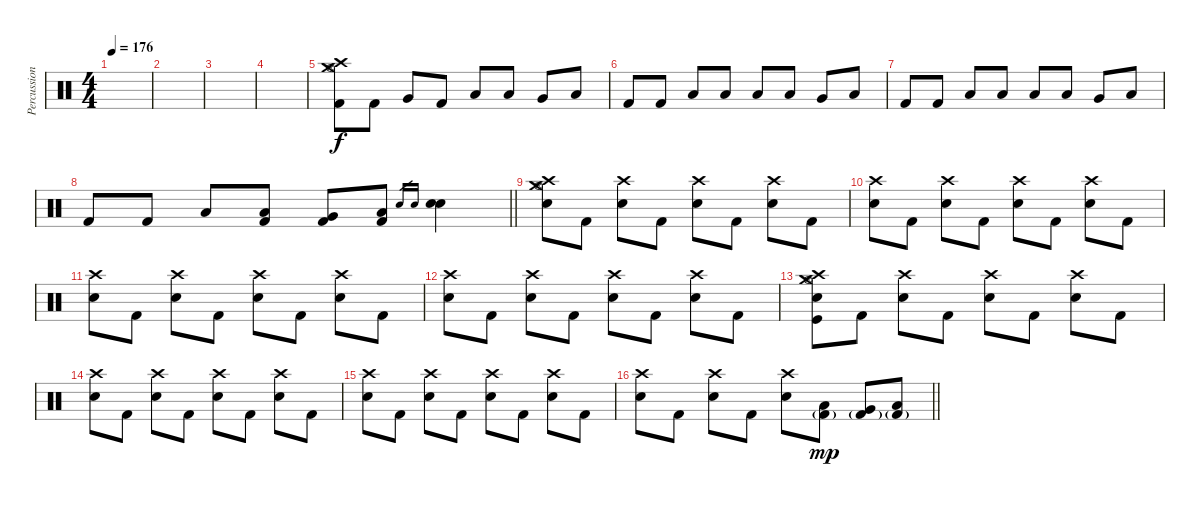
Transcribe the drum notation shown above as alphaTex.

\track ("Percussion" "Percussion") {instrument percussion}
\staff {score}
\articulation defaults
\ts (4 4)
\tempo 176
\clef neutral
\ks c
|
|
|
|
("Hi-Hat (open)" "Crash medium (hit)" "Crash high (hit)" "Kick (hit) 2").8 "Kick (hit) 2".8 "Very Low Tom (hit)".8 "Kick (hit) 2".8 "Low Floor Tom (hit)".8 "Low Tom (hit)".8 "Very Low Tom (hit)".8 "Low Tom (hit)".8 |
"Kick (hit) 2".8 "Kick (hit) 2".8 "Low Tom (hit)".8 "Low Floor Tom (hit)".8 "Low Floor Tom (hit)".8 "Low Tom (hit)".8 "Very Low Tom (hit)".8 "Low Tom (hit)".8 |
"Kick (hit) 2".8 "Kick (hit) 2".8 "Low Tom (hit)".8 "Low Floor Tom (hit)".8 "Low Floor Tom (hit)".8 "Low Tom (hit)".8 "Very Low Tom (hit)".8 "Low Tom (hit)".8 |
\barLineRight lightlight "Kick (hit) 2".8 "Kick (hit) 2".8 "Low Tom (hit)".8
("Low Tom (hit)" "Kick (hit) 2").8 ("Very Low Tom (hit)" "Kick (hit) 2").8 ("Low Floor Tom (hit)" "Kick (hit) 2").8 "Electric Snare (hit)".16{gr} "Electric Snare (hit)".16{gr} ("Electric Snare (hit)" "Electric Snare (hit)").4 |
("Crash medium (hit)" "Crash high (hit)" "Hi-Hat (open)" "Electric Snare (hit)").8 "Kick (hit) 2".8 ("Crash high (hit)" "Electric Snare (hit)").8 "Kick (hit) 2".8 ("Crash high (hit)" "Electric Snare (hit)").8 "Kick (hit) 2".8 ("Crash high (hit)" "Electric Snare (hit)").8 "Kick (hit) 2".8 |
("Crash high (hit)" "Electric Snare (hit)").8 "Kick (hit) 2".8 ("Crash high (hit)" "Electric Snare (hit)").8 "Kick (hit) 2".8 ("Crash high (hit)" "Electric Snare (hit)").8 "Kick (hit) 2".8 ("Crash high (hit)" "Electric Snare (hit)").8 "Kick (hit) 2".8 |
("Crash high (hit)" "Electric Snare (hit)").8 "Kick (hit) 2".8 ("Crash high (hit)" "Electric Snare (hit)").8 "Kick (hit) 2".8 ("Crash high (hit)" "Electric Snare (hit)").8 "Kick (hit) 2".8 ("Crash high (hit)" "Electric Snare (hit)").8 "Kick (hit) 2".8 |
("Crash high (hit)" "Electric Snare (hit)").8 "Kick (hit) 2".8 ("Crash high (hit)" "Electric Snare (hit)").8 "Kick (hit) 2".8 ("Crash high (hit)" "Electric Snare (hit)").8 "Kick (hit) 2".8 ("Crash high (hit)" "Electric Snare (hit)").8 "Kick (hit) 2".8 |
("Crash medium (hit)" "Crash high (hit)" "Hi-Hat (open)" "Kick (hit)" "Electric Snare (hit)").8 "Kick (hit) 2".8 ("Crash high (hit)" "Electric Snare (hit)").8 "Kick (hit) 2".8 ("Crash high (hit)" "Electric Snare (hit)").8 "Kick (hit) 2".8 ("Crash high (hit)" "Electric Snare (hit)").8 "Kick (hit) 2".8 |
("Crash high (hit)" "Electric Snare (hit)").8 "Kick (hit) 2".8 ("Crash high (hit)" "Electric Snare (hit)").8 "Kick (hit) 2".8 ("Crash high (hit)" "Electric Snare (hit)").8 "Kick (hit) 2".8 ("Crash high (hit)" "Electric Snare (hit)").8 "Kick (hit) 2".8 |
("Crash high (hit)" "Electric Snare (hit)").8 "Kick (hit) 2".8 ("Crash high (hit)" "Electric Snare (hit)").8 "Kick (hit) 2".8 ("Crash high (hit)" "Electric Snare (hit)").8 "Kick (hit) 2".8 ("Crash high (hit)" "Electric Snare (hit)").8 "Kick (hit) 2".8 |
\barLineRight lightlight
("Crash high (hit)" "Electric Snare (hit)").8 "Kick (hit) 2".8 ("Crash high (hit)" "Electric Snare (hit)").8 "Kick (hit) 2".8 ("Crash high (hit)" "Electric Snare (hit)").8 ("Low Tom (hit)" "Kick (hit) 2"{g}).8{dy mp} ("Very Low Tom (hit)" "Kick (hit) 2"{g}).8 ("Low Floor Tom (hit)" "Kick (hit) 2"{g}).8
